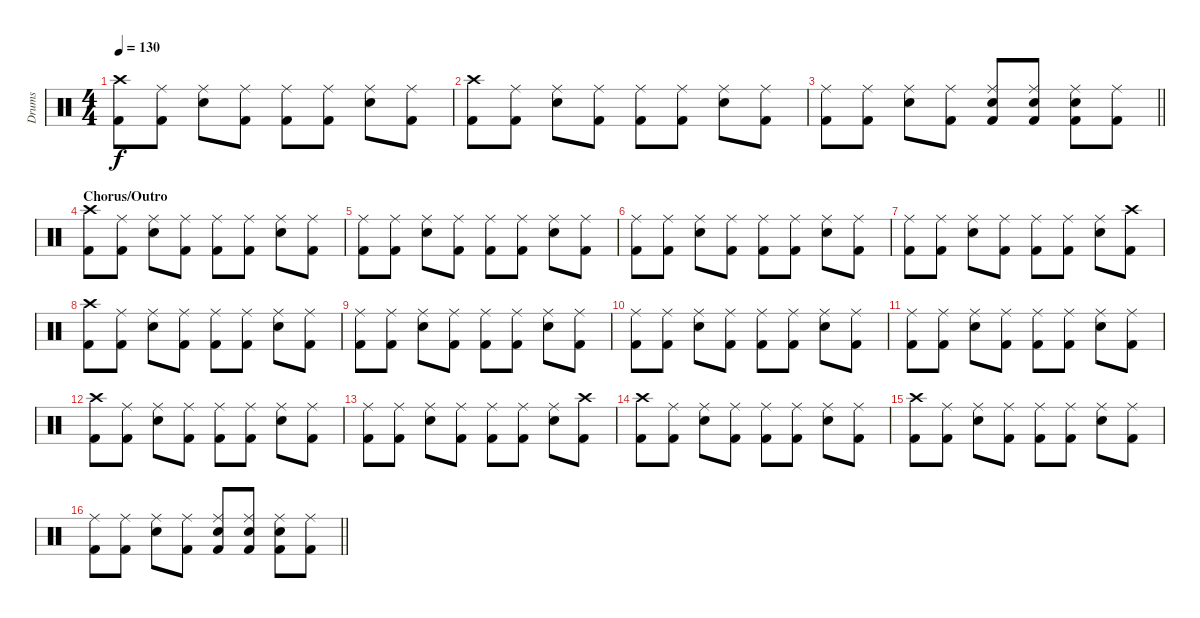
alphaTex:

\track ("Drums" "Drums") {instrument percussion}
\staff {score}
\articulation defaults
\ts (4 4)
\tempo 130
\clef neutral
\ks c
("Crash high (hit)" "Kick (hit) 2").8{dy f} ("Ride (middle)" "Kick (hit) 2").8 ("Ride (middle)" "Snare (hit) 2").8 ("Ride (middle)" "Kick (hit) 2").8 ("Ride (middle)" "Kick (hit) 2").8 ("Ride (middle)" "Kick (hit) 2").8 ("Ride (middle)" "Snare (hit) 2").8 ("Ride (middle)" "Kick (hit) 2").8 |
("Crash high (hit)" "Kick (hit) 2").8 ("Ride (middle)" "Kick (hit) 2").8 ("Ride (middle)" "Snare (hit) 2").8 ("Ride (middle)" "Kick (hit) 2").8 ("Ride (middle)" "Kick (hit) 2").8 ("Ride (middle)" "Kick (hit) 2").8 ("Ride (middle)" "Snare (hit) 2").8 ("Ride (middle)" "Kick (hit) 2").8 |
\barLineRight lightlight
("Ride (middle)" "Kick (hit) 2").8 ("Ride (middle)" "Kick (hit) 2").8 ("Ride (middle)" "Snare (hit) 2").8 ("Ride (middle)" "Kick (hit) 2").8 ("Ride (middle)" "Snare (hit) 2" "Kick (hit) 2").8 ("Ride (middle)" "Snare (hit) 2" "Kick (hit) 2").8 ("Ride (middle)" "Snare (hit) 2" "Kick (hit) 2").8 ("Ride (middle)" "Kick (hit) 2").8 |
\section ("" "Chorus/Outro")
("Crash high (hit)" "Kick (hit) 2").8 ("Ride (middle)" "Kick (hit) 2").8 ("Ride (middle)" "Snare (hit) 2").8 ("Ride (middle)" "Kick (hit) 2").8 ("Ride (middle)" "Kick (hit) 2").8 ("Ride (middle)" "Kick (hit) 2").8 ("Ride (middle)" "Snare (hit) 2").8 ("Ride (middle)" "Kick (hit) 2").8 |
("Ride (middle)" "Kick (hit) 2").8 ("Ride (middle)" "Kick (hit) 2").8 ("Ride (middle)" "Snare (hit) 2").8 ("Ride (middle)" "Kick (hit) 2").8 ("Ride (middle)" "Kick (hit) 2").8 ("Ride (middle)" "Kick (hit) 2").8 ("Ride (middle)" "Snare (hit) 2").8 ("Ride (middle)" "Kick (hit) 2").8 |
("Ride (middle)" "Kick (hit) 2").8 ("Ride (middle)" "Kick (hit) 2").8 ("Ride (middle)" "Snare (hit) 2").8 ("Ride (middle)" "Kick (hit) 2").8 ("Ride (middle)" "Kick (hit) 2").8 ("Ride (middle)" "Kick (hit) 2").8 ("Ride (middle)" "Snare (hit) 2").8 ("Ride (middle)" "Kick (hit) 2").8 |
("Ride (middle)" "Kick (hit) 2").8 ("Ride (middle)" "Kick (hit) 2").8 ("Ride (middle)" "Snare (hit) 2").8 ("Ride (middle)" "Kick (hit) 2").8 ("Ride (middle)" "Kick (hit) 2").8 ("Ride (middle)" "Kick (hit) 2").8 ("Ride (middle)" "Snare (hit) 2").8 ("Crash high (hit)" "Kick (hit) 2").8 |
("Crash high (hit)" "Kick (hit) 2").8 ("Ride (middle)" "Kick (hit) 2").8 ("Ride (middle)" "Snare (hit) 2").8 ("Ride (middle)" "Kick (hit) 2").8 ("Ride (middle)" "Kick (hit) 2").8 ("Ride (middle)" "Kick (hit) 2").8 ("Ride (middle)" "Snare (hit) 2").8 ("Ride (middle)" "Kick (hit) 2").8 |
("Ride (middle)" "Kick (hit) 2").8 ("Ride (middle)" "Kick (hit) 2").8 ("Ride (middle)" "Snare (hit) 2").8 ("Ride (middle)" "Kick (hit) 2").8 ("Ride (middle)" "Kick (hit) 2").8 ("Ride (middle)" "Kick (hit) 2").8 ("Ride (middle)" "Snare (hit) 2").8 ("Ride (middle)" "Kick (hit) 2").8 |
("Ride (middle)" "Kick (hit) 2").8 ("Ride (middle)" "Kick (hit) 2").8 ("Ride (middle)" "Snare (hit) 2").8 ("Ride (middle)" "Kick (hit) 2").8 ("Ride (middle)" "Kick (hit) 2").8 ("Ride (middle)" "Kick (hit) 2").8 ("Ride (middle)" "Snare (hit) 2").8 ("Ride (middle)" "Kick (hit) 2").8 |
("Ride (middle)" "Kick (hit) 2").8 ("Ride (middle)" "Kick (hit) 2").8 ("Ride (middle)" "Snare (hit) 2").8 ("Ride (middle)" "Kick (hit) 2").8 ("Ride (middle)" "Kick (hit) 2").8 ("Ride (middle)" "Kick (hit) 2").8 ("Ride (middle)" "Snare (hit) 2").8 ("Ride (middle)" "Kick (hit) 2").8 |
("Crash high (hit)" "Kick (hit) 2").8 ("Ride (middle)" "Kick (hit) 2").8 ("Ride (middle)" "Snare (hit) 2").8 ("Ride (middle)" "Kick (hit) 2").8 ("Ride (middle)" "Kick (hit) 2").8 ("Ride (middle)" "Kick (hit) 2").8 ("Ride (middle)" "Snare (hit) 2").8 ("Ride (middle)" "Kick (hit) 2").8 |
("Ride (middle)" "Kick (hit) 2").8 ("Ride (middle)" "Kick (hit) 2").8 ("Ride (middle)" "Snare (hit) 2").8 ("Ride (middle)" "Kick (hit) 2").8 ("Ride (middle)" "Kick (hit) 2").8 ("Ride (middle)" "Kick (hit) 2").8 ("Ride (middle)" "Snare (hit) 2").8 ("Crash high (hit)" "Kick (hit) 2").8 |
("Crash high (hit)" "Kick (hit) 2").8 ("Ride (middle)" "Kick (hit) 2").8 ("Ride (middle)" "Snare (hit) 2").8 ("Ride (middle)" "Kick (hit) 2").8 ("Ride (middle)" "Kick (hit) 2").8 ("Ride (middle)" "Kick (hit) 2").8 ("Ride (middle)" "Snare (hit) 2").8 ("Ride (middle)" "Kick (hit) 2").8 |
("Crash high (hit)" "Kick (hit) 2").8 ("Ride (middle)" "Kick (hit) 2").8 ("Ride (middle)" "Snare (hit) 2").8 ("Ride (middle)" "Kick (hit) 2").8 ("Ride (middle)" "Kick (hit) 2").8 ("Ride (middle)" "Kick (hit) 2").8 ("Ride (middle)" "Snare (hit) 2").8 ("Ride (middle)" "Kick (hit) 2").8 |
\barLineRight lightlight
("Ride (middle)" "Kick (hit) 2").8 ("Ride (middle)" "Kick (hit) 2").8 ("Ride (middle)" "Snare (hit) 2").8 ("Ride (middle)" "Kick (hit) 2").8 ("Ride (middle)" "Snare (hit) 2" "Kick (hit) 2").8 ("Ride (middle)" "Snare (hit) 2" "Kick (hit) 2").8 ("Ride (middle)" "Snare (hit) 2" "Kick (hit) 2").8 ("Ride (middle)" "Kick (hit) 2").8
